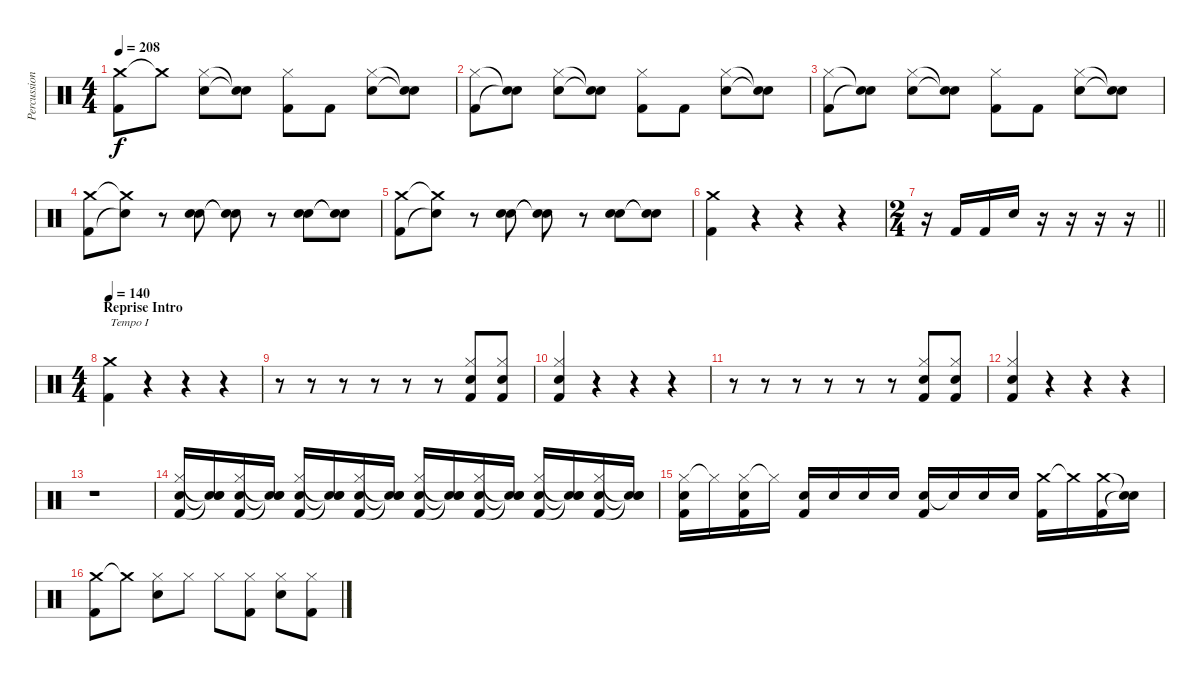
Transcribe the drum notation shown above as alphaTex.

\track ("Percussion" "Percussion") {instrument percussion}
\staff {score}
\articulation defaults
\ts (4 4)
\tempo 208
\clef neutral
\ks c
("Crash medium (hit)" "Kick (hit) 2").8{dy f} "Crash medium (hit)"{t}.8 ("Hi-Hat (closed)" "Snare (hit) 2").8 ("Snare (hit)"{t} "Snare (hit)"{t}).8 ("Hi-Hat (closed)" "Kick (hit) 2").8 "Kick (hit) 2".8 ("Hi-Hat (closed)" "Snare (hit) 2").8 ("Snare (hit)"{t} "Snare (hit)"{t}).8 |
("Hi-Hat (closed)" "Kick (hit) 2").8 ("Snare (hit)"{t} "Snare (hit)"{t}).8 ("Hi-Hat (closed)" "Snare (hit) 2").8 ("Snare (hit)"{t} "Snare (hit)"{t}).8 ("Hi-Hat (closed)" "Kick (hit) 2").8 "Kick (hit) 2".8 ("Hi-Hat (closed)" "Snare (hit) 2").8 ("Snare (hit)"{t} "Snare (hit)"{t}).8 |
("Hi-Hat (closed)" "Kick (hit) 2").8 ("Snare (hit)"{t} "Snare (hit)"{t}).8 ("Hi-Hat (closed)" "Snare (hit) 2").8 ("Snare (hit)"{t} "Snare (hit)"{t}).8 ("Hi-Hat (closed)" "Kick (hit) 2").8 "Kick (hit) 2".8 ("Hi-Hat (closed)" "Snare (hit) 2").8 ("Snare (hit)"{t} "Snare (hit)"{t}).8 |
("Crash medium (hit)" "Kick (hit) 2").8 ("Crash medium (hit)"{t} "Snare (hit)"{t}).8 r.8 ("Snare (hit) 2" "Snare (hit) 2").8 ("Snare (hit)"{t} "Snare (hit)"{t}).8 r.8 ("Snare (hit) 2" "Snare (hit) 2").8 ("Snare (hit)"{t} "Snare (hit)"{t}).8 |
("Crash medium (hit)" "Kick (hit) 2").8 ("Crash medium (hit)"{t} "Snare (hit)"{t}).8 r.8 ("Snare (hit) 2" "Snare (hit) 2").8 ("Snare (hit)"{t} "Snare (hit)"{t}).8 r.8 ("Snare (hit) 2" "Snare (hit) 2").8 ("Snare (hit)"{t} "Snare (hit)"{t}).8 |
("Crash medium (hit)" "Kick (hit) 2").4 r.4 r.4 r.4 |
\ts (2 4)
\barLineRight lightlight
r.16 "Kick (hit) 2".16 "Kick (hit) 2".16 "Snare (hit) 2".16 r.16 r.16 r.16 r.16 |
\ts (4 4)
\section ("" "Reprise Intro")
\tempo 140
("Crash medium (hit)" "Kick (hit) 2").4{txt "Tempo I"} r.4 r.4 r.4 |
r.8 r.8 r.8 r.8 r.8 r.8 ("Hi-Hat (closed)" "Snare (hit) 2" "Kick (hit) 2").8 ("Hi-Hat (closed)" "Snare (hit) 2" "Kick (hit) 2").8 |
("Hi-Hat (closed)" "Snare (hit) 2" "Kick (hit) 2").4 r.4 r.4 r.4 |
r.8 r.8 r.8 r.8 r.8 r.8 ("Hi-Hat (closed)" "Snare (hit) 2" "Kick (hit) 2").8 ("Hi-Hat (closed)" "Snare (hit) 2" "Kick (hit) 2").8 |
("Hi-Hat (closed)" "Snare (hit) 2" "Kick (hit) 2").4 r.4 r.4 r.4 |
r.1 |
("Hi-Hat (closed)" "Snare (hit) 2" "Kick (hit) 2").16 ("Snare (hit)"{t} "Snare (hit)"{t} "Snare (hit)"{t}).16 ("Hi-Hat (closed)" "Snare (hit) 2" "Kick (hit) 2").16 ("Snare (hit)"{t} "Snare (hit)"{t} "Snare (hit)"{t}).16 ("Hi-Hat (closed)" "Snare (hit) 2" "Kick (hit) 2").16 ("Snare (hit)"{t} "Snare (hit)"{t} "Snare (hit)"{t}).16 ("Hi-Hat (closed)" "Snare (hit) 2" "Kick (hit) 2").16 ("Snare (hit)"{t} "Snare (hit)"{t} "Snare (hit)"{t}).16 ("Hi-Hat (closed)" "Snare (hit) 2" "Kick (hit) 2").16 ("Snare (hit)"{t} "Snare (hit)"{t} "Snare (hit)"{t}).16 ("Hi-Hat (closed)" "Snare (hit) 2" "Kick (hit) 2").16 ("Snare (hit)"{t} "Snare (hit)"{t} "Snare (hit)"{t}).16 ("Hi-Hat (closed)" "Snare (hit) 2" "Kick (hit) 2").16 ("Snare (hit)"{t} "Snare (hit)"{t} "Snare (hit)"{t}).16 ("Hi-Hat (closed)" "Snare (hit) 2" "Kick (hit) 2").16 ("Snare (hit)"{t} "Snare (hit)"{t} "Snare (hit)"{t}).16 |
("Hi-Hat (closed)" "Snare (hit) 2" "Kick (hit) 2").16 "Hi-Hat (closed)"{t}.16 ("Hi-Hat (closed)" "Snare (hit) 2" "Kick (hit) 2").16 "Hi-Hat (closed)"{t}.16 ("Snare (hit) 2" "Kick (hit) 2").16 "Snare (hit) 2".16 "Snare (hit) 2".16 "Snare (hit) 2".16 ("Snare (hit) 2" "Kick (hit) 2").16 "Snare (hit) 2"{t}.16 "Snare (hit) 2".16 "Snare (hit) 2".16 ("Crash medium (hit)" "Kick (hit) 2").16 "Crash medium (hit)"{t}.16 ("Crash medium (hit)" "Kick (hit) 2").16 ("Snare (hit)"{t} "Snare (hit)"{t}).16 |
("Crash medium (hit)" "Kick (hit) 2").8 "Crash medium (hit)"{t}.8 ("Hi-Hat (closed)" "Snare (hit) 2").8 "Hi-Hat (closed)".8 "Hi-Hat (closed)".8 ("Hi-Hat (closed)" "Kick (hit) 2").8 ("Hi-Hat (closed)" "Snare (hit) 2").8 ("Hi-Hat (closed)" "Kick (hit) 2").8
